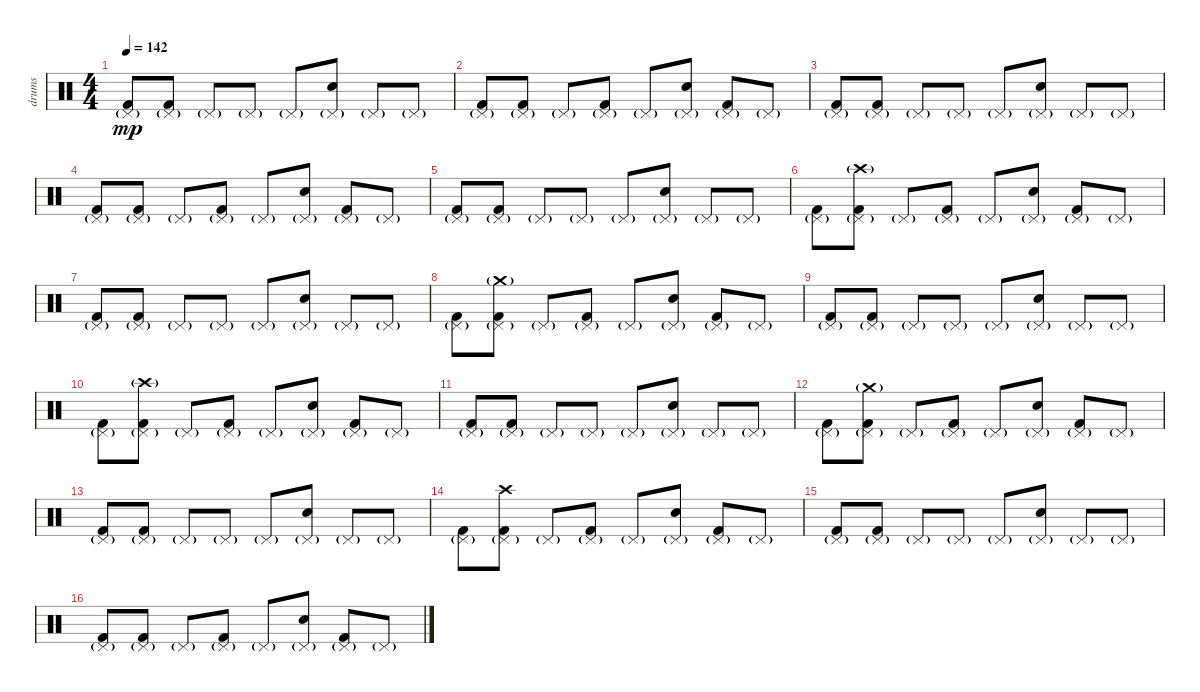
\track ("drums" "drums") {instrument percussion}
\staff {score}
\articulation defaults
\ts (4 4)
\tempo 142
\clef neutral
\ks c
("Kick (hit) 2" "Pedal Hi-Hat (hit)"{g}).8{dy mp} ("Kick (hit) 2" "Pedal Hi-Hat (hit)"{g}).8 "Pedal Hi-Hat (hit)"{g}.8 "Pedal Hi-Hat (hit)"{g}.8 "Pedal Hi-Hat (hit)"{g}.8 ("Snare (hit) 2" "Pedal Hi-Hat (hit)"{g}).8 "Pedal Hi-Hat (hit)"{g}.8 "Pedal Hi-Hat (hit)"{g}.8 |
("Kick (hit) 2" "Pedal Hi-Hat (hit)"{g}).8 ("Kick (hit) 2" "Pedal Hi-Hat (hit)"{g}).8 "Pedal Hi-Hat (hit)"{g}.8 ("Kick (hit) 2" "Pedal Hi-Hat (hit)"{g}).8 "Pedal Hi-Hat (hit)"{g}.8 ("Snare (hit) 2" "Pedal Hi-Hat (hit)"{g}).8 ("Kick (hit) 2" "Pedal Hi-Hat (hit)"{g}).8 "Pedal Hi-Hat (hit)"{g}.8 |
("Kick (hit) 2" "Pedal Hi-Hat (hit)"{g}).8 ("Kick (hit) 2" "Pedal Hi-Hat (hit)"{g}).8 "Pedal Hi-Hat (hit)"{g}.8 "Pedal Hi-Hat (hit)"{g}.8 "Pedal Hi-Hat (hit)"{g}.8 ("Snare (hit) 2" "Pedal Hi-Hat (hit)"{g}).8 "Pedal Hi-Hat (hit)"{g}.8 "Pedal Hi-Hat (hit)"{g}.8 |
("Kick (hit) 2" "Pedal Hi-Hat (hit)"{g}).8 ("Kick (hit) 2" "Pedal Hi-Hat (hit)"{g}).8 "Pedal Hi-Hat (hit)"{g}.8 ("Kick (hit) 2" "Pedal Hi-Hat (hit)"{g}).8 "Pedal Hi-Hat (hit)"{g}.8 ("Snare (hit) 2" "Pedal Hi-Hat (hit)"{g}).8 ("Kick (hit) 2" "Pedal Hi-Hat (hit)"{g}).8 "Pedal Hi-Hat (hit)"{g}.8 |
("Kick (hit) 2" "Pedal Hi-Hat (hit)"{g}).8 ("Kick (hit) 2" "Pedal Hi-Hat (hit)"{g}).8 "Pedal Hi-Hat (hit)"{g}.8 "Pedal Hi-Hat (hit)"{g}.8 "Pedal Hi-Hat (hit)"{g}.8 ("Snare (hit) 2" "Pedal Hi-Hat (hit)"{g}).8 "Pedal Hi-Hat (hit)"{g}.8 "Pedal Hi-Hat (hit)"{g}.8 |
("Kick (hit) 2" "Pedal Hi-Hat (hit)"{g}).8 ("Kick (hit) 2" "Crash high (hit)"{g} "Pedal Hi-Hat (hit)"{g}).8 "Pedal Hi-Hat (hit)"{g}.8 ("Kick (hit) 2" "Pedal Hi-Hat (hit)"{g}).8 "Pedal Hi-Hat (hit)"{g}.8 ("Snare (hit) 2" "Pedal Hi-Hat (hit)"{g}).8 ("Kick (hit) 2" "Pedal Hi-Hat (hit)"{g}).8 "Pedal Hi-Hat (hit)"{g}.8 |
("Kick (hit) 2" "Pedal Hi-Hat (hit)"{g}).8 ("Kick (hit) 2" "Pedal Hi-Hat (hit)"{g}).8 "Pedal Hi-Hat (hit)"{g}.8 "Pedal Hi-Hat (hit)"{g}.8 "Pedal Hi-Hat (hit)"{g}.8 ("Snare (hit) 2" "Pedal Hi-Hat (hit)"{g}).8 "Pedal Hi-Hat (hit)"{g}.8 "Pedal Hi-Hat (hit)"{g}.8 |
("Kick (hit) 2" "Pedal Hi-Hat (hit)"{g}).8 ("Kick (hit) 2" "Crash medium (hit)"{g} "Pedal Hi-Hat (hit)"{g}).8 "Pedal Hi-Hat (hit)"{g}.8 ("Kick (hit) 2" "Pedal Hi-Hat (hit)"{g}).8 "Pedal Hi-Hat (hit)"{g}.8 ("Snare (hit) 2" "Pedal Hi-Hat (hit)"{g}).8 ("Kick (hit) 2" "Pedal Hi-Hat (hit)"{g}).8 "Pedal Hi-Hat (hit)"{g}.8 |
("Kick (hit) 2" "Pedal Hi-Hat (hit)"{g}).8 ("Kick (hit) 2" "Pedal Hi-Hat (hit)"{g}).8 "Pedal Hi-Hat (hit)"{g}.8 "Pedal Hi-Hat (hit)"{g}.8 "Pedal Hi-Hat (hit)"{g}.8 ("Snare (hit) 2" "Pedal Hi-Hat (hit)"{g}).8 "Pedal Hi-Hat (hit)"{g}.8 "Pedal Hi-Hat (hit)"{g}.8 |
("Kick (hit) 2" "Pedal Hi-Hat (hit)"{g}).8 ("Kick (hit) 2" "Crash high (hit)"{g} "Pedal Hi-Hat (hit)"{g}).8 "Pedal Hi-Hat (hit)"{g}.8 ("Kick (hit) 2" "Pedal Hi-Hat (hit)"{g}).8 "Pedal Hi-Hat (hit)"{g}.8 ("Snare (hit) 2" "Pedal Hi-Hat (hit)"{g}).8 ("Kick (hit) 2" "Pedal Hi-Hat (hit)"{g}).8 "Pedal Hi-Hat (hit)"{g}.8 |
("Kick (hit) 2" "Pedal Hi-Hat (hit)"{g}).8 ("Kick (hit) 2" "Pedal Hi-Hat (hit)"{g}).8 "Pedal Hi-Hat (hit)"{g}.8 "Pedal Hi-Hat (hit)"{g}.8 "Pedal Hi-Hat (hit)"{g}.8 ("Snare (hit) 2" "Pedal Hi-Hat (hit)"{g}).8 "Pedal Hi-Hat (hit)"{g}.8 "Pedal Hi-Hat (hit)"{g}.8 |
("Kick (hit) 2" "Pedal Hi-Hat (hit)"{g}).8 ("Kick (hit) 2" "Crash medium (hit)"{g} "Pedal Hi-Hat (hit)"{g}).8 "Pedal Hi-Hat (hit)"{g}.8 ("Kick (hit) 2" "Pedal Hi-Hat (hit)"{g}).8 "Pedal Hi-Hat (hit)"{g}.8 ("Snare (hit) 2" "Pedal Hi-Hat (hit)"{g}).8 ("Kick (hit) 2" "Pedal Hi-Hat (hit)"{g}).8 "Pedal Hi-Hat (hit)"{g}.8 |
("Kick (hit) 2" "Pedal Hi-Hat (hit)"{g}).8 ("Kick (hit) 2" "Pedal Hi-Hat (hit)"{g}).8 "Pedal Hi-Hat (hit)"{g}.8 "Pedal Hi-Hat (hit)"{g}.8 "Pedal Hi-Hat (hit)"{g}.8 ("Snare (hit) 2" "Pedal Hi-Hat (hit)"{g}).8 "Pedal Hi-Hat (hit)"{g}.8 "Pedal Hi-Hat (hit)"{g}.8 |
("Kick (hit) 2" "Pedal Hi-Hat (hit)"{g}).8 ("Kick (hit) 2" "Crash high (hit)" "Pedal Hi-Hat (hit)"{g}).8 "Pedal Hi-Hat (hit)"{g}.8 ("Kick (hit) 2" "Pedal Hi-Hat (hit)"{g}).8 "Pedal Hi-Hat (hit)"{g}.8 ("Snare (hit) 2" "Pedal Hi-Hat (hit)"{g}).8 ("Kick (hit) 2" "Pedal Hi-Hat (hit)"{g}).8 "Pedal Hi-Hat (hit)"{g}.8 |
("Kick (hit) 2" "Pedal Hi-Hat (hit)"{g}).8 ("Kick (hit) 2" "Pedal Hi-Hat (hit)"{g}).8 "Pedal Hi-Hat (hit)"{g}.8 "Pedal Hi-Hat (hit)"{g}.8 "Pedal Hi-Hat (hit)"{g}.8 ("Snare (hit) 2" "Pedal Hi-Hat (hit)"{g}).8 "Pedal Hi-Hat (hit)"{g}.8 "Pedal Hi-Hat (hit)"{g}.8 |
("Kick (hit) 2" "Pedal Hi-Hat (hit)"{g}).8 ("Kick (hit) 2" "Pedal Hi-Hat (hit)"{g}).8 "Pedal Hi-Hat (hit)"{g}.8 ("Kick (hit) 2" "Pedal Hi-Hat (hit)"{g}).8 "Pedal Hi-Hat (hit)"{g}.8 ("Snare (hit) 2" "Pedal Hi-Hat (hit)"{g}).8 ("Kick (hit) 2" "Pedal Hi-Hat (hit)"{g}).8 "Pedal Hi-Hat (hit)"{g}.8
